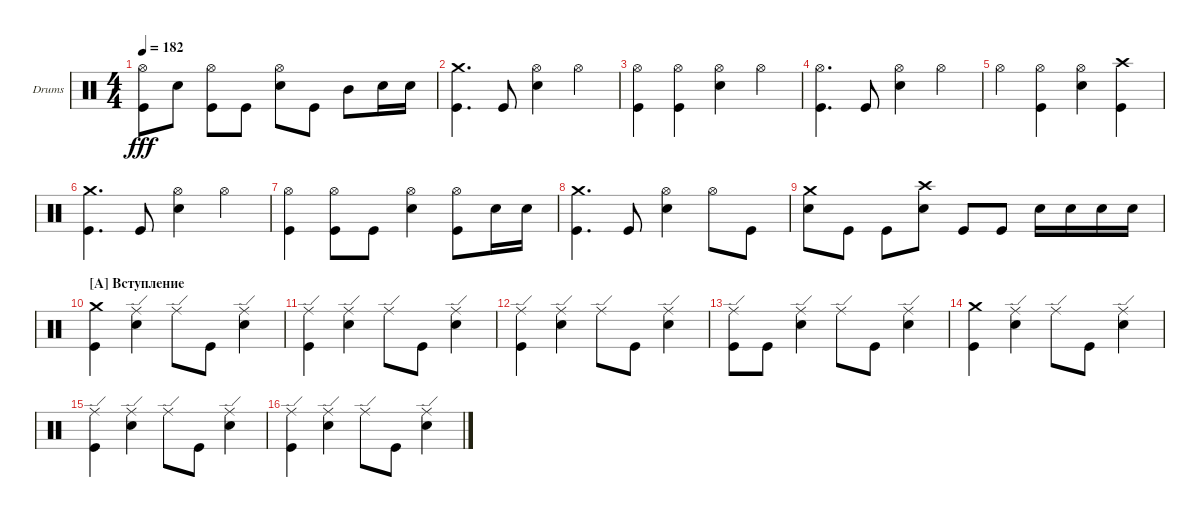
\defaultSystemsLayout 4
\bracketExtendMode groupsimilarinstruments
\firstSystemTrackNameOrientation horizontal
\otherSystemsTrackNameOrientation horizontal
\track ("Drumkit" "Drums") {instrument percussion}
\staff {score}
\articulation defaults
\ts (4 4)
\tempo 182
\clef neutral
\ks c
("Kick (hit)" "Hi-Hat (open)").8{dy fff} "Snare (hit) 2".8 ("Kick (hit)" "Hi-Hat (open)").8 "Kick (hit)".8 ("Snare (hit) 2" "Hi-Hat (open)").8 "Kick (hit)".8 "Mid Tom (hit)".8 "Snare (hit) 2".16 "Snare (hit) 2".16 |
("Kick (hit)" "Crash medium (hit)").4{d} "Kick (hit)".8 ("Snare (hit) 2" "Hi-Hat (open)").4 "Hi-Hat (open)".4 |
("Kick (hit)" "Hi-Hat (open)").4 ("Kick (hit)" "Hi-Hat (open)").4 ("Snare (hit) 2" "Hi-Hat (open)").4 "Hi-Hat (open)".4 |
("Kick (hit)" "Hi-Hat (open)").4{d} "Kick (hit)".8 ("Snare (hit) 2" "Hi-Hat (open)").4 "Hi-Hat (open)".4 |
"Hi-Hat (open)".4 ("Kick (hit)" "Hi-Hat (open)").4 ("Snare (hit) 2" "Hi-Hat (open)").4 ("Kick (hit)" "Crash high (hit)").4 |
("Kick (hit)" "Crash medium (hit)").4{d} "Kick (hit)".8 ("Snare (hit) 2" "Hi-Hat (open)").4 "Hi-Hat (open)".4 |
("Kick (hit)" "Hi-Hat (open)").4 ("Kick (hit)" "Hi-Hat (open)").8 "Kick (hit)".8 ("Snare (hit) 2" "Hi-Hat (open)").4 ("Hi-Hat (open)" "Kick (hit)").8 "Snare (hit) 2".16 "Snare (hit) 2".16 |
("Kick (hit)" "Crash medium (hit)").4{d} "Kick (hit)".8 ("Snare (hit) 2" "Hi-Hat (open)").4 "Hi-Hat (open)".8 "Kick (hit)".8 |
("Snare (hit) 2" "Crash medium (hit)").8 "Kick (hit)".8 "Kick (hit)".8 ("Snare (hit) 2" "Crash high (hit)").8 "Kick (hit)".8 "Kick (hit)".8 "Snare (hit) 2".16 "Snare (hit) 2".16 "Snare (hit) 2".16 "Snare (hit) 2".16 |
\section ("A" "Вступление")
("Kick (hit)" "Crash medium (hit)").4 ("Snare (hit) 2" "Ride (edge)").4 "Ride (edge)".8 "Kick (hit)".8 ("Snare (hit) 2" "Ride (edge)").4 |
("Kick (hit)" "Ride (edge)").4 ("Snare (hit) 2" "Ride (edge)").4 "Ride (edge)".8 "Kick (hit)".8 ("Snare (hit) 2" "Ride (edge)").4 |
("Kick (hit)" "Ride (edge)").4 ("Snare (hit) 2" "Ride (edge)").4 "Ride (edge)".8 "Kick (hit)".8 ("Snare (hit) 2" "Ride (edge)").4 |
("Kick (hit)" "Ride (edge)").8 "Kick (hit)".8 ("Snare (hit) 2" "Ride (edge)").4 "Ride (edge)".8 "Kick (hit)".8 ("Snare (hit) 2" "Ride (edge)").4 |
("Kick (hit)" "Crash medium (hit)").4 ("Snare (hit) 2" "Ride (edge)").4 "Ride (edge)".8 "Kick (hit)".8 ("Snare (hit) 2" "Ride (edge)").4 |
("Kick (hit)" "Ride (edge)").4 ("Snare (hit) 2" "Ride (edge)").4 "Ride (edge)".8 "Kick (hit)".8 ("Snare (hit) 2" "Ride (edge)").4 |
("Kick (hit)" "Ride (edge)").4 ("Snare (hit) 2" "Ride (edge)").4 "Ride (edge)".8 "Kick (hit)".8 ("Snare (hit) 2" "Ride (edge)").4
